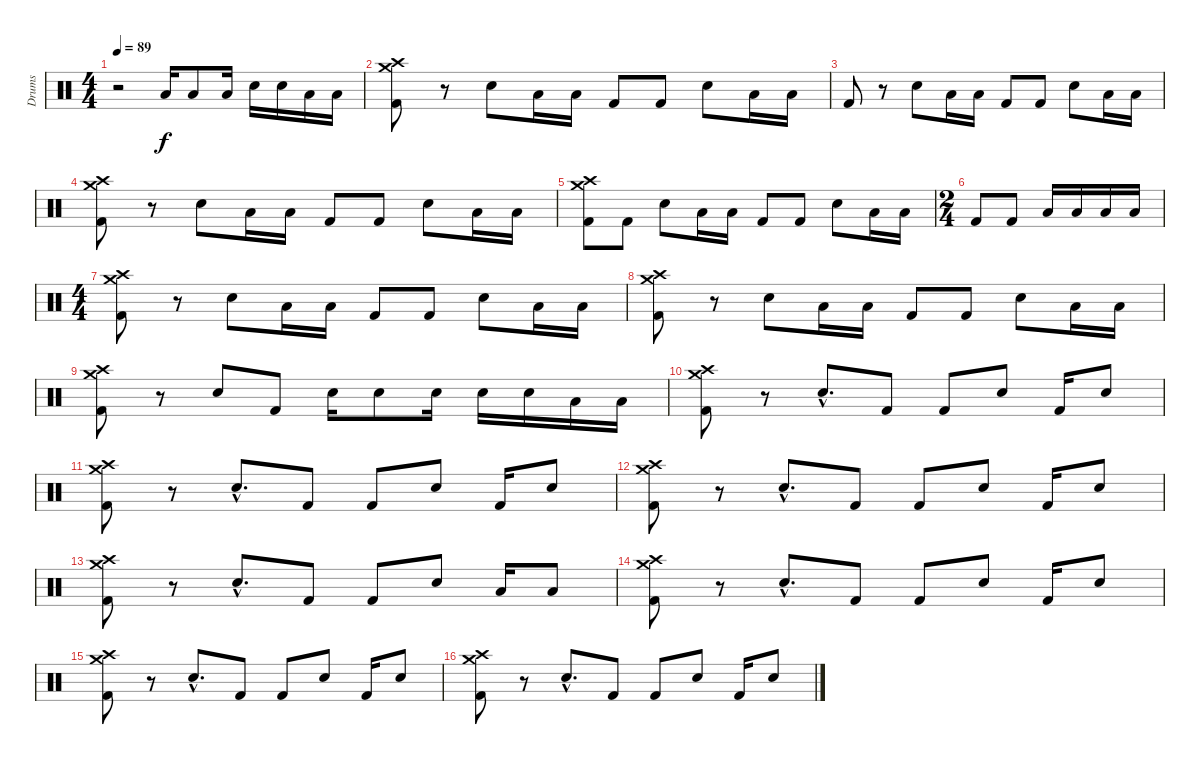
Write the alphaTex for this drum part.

\track ("Drums" "Drums") {instrument percussion}
\staff {score}
\articulation defaults
\ts (4 4)
\tempo 89
\clef neutral
\ks c
r.2{dy f} "Low Tom (hit)".16 "Low Tom (hit)".8 "Low Tom (hit)".16 "Snare (hit) 2".16 "Snare (hit) 2".16 "Low Tom (hit)".16 "Low Tom (hit)".16 |
("Crash high (hit)" "Crash medium (hit)" "Kick (hit) 2").8 r.8 "Snare (hit) 2".8 "Low Tom (hit)".16 "Low Tom (hit)".16 "Kick (hit) 2".8 "Kick (hit) 2".8 "Snare (hit) 2".8 "Low Tom (hit)".16 "Low Tom (hit)".16 |
"Kick (hit) 2".8 r.8 "Snare (hit) 2".8 "Low Tom (hit)".16 "Low Tom (hit)".16 "Kick (hit) 2".8 "Kick (hit) 2".8 "Snare (hit) 2".8 "Low Tom (hit)".16 "Low Tom (hit)".16 |
("Crash high (hit)" "Crash medium (hit)" "Kick (hit) 2").8 r.8 "Snare (hit) 2".8 "Low Tom (hit)".16 "Low Tom (hit)".16 "Kick (hit) 2".8 "Kick (hit) 2".8 "Snare (hit) 2".8 "Low Tom (hit)".16 "Low Tom (hit)".16 |
("Crash high (hit)" "Crash medium (hit)" "Kick (hit) 2").8 "Kick (hit) 2".8 "Snare (hit) 2".8 "Low Tom (hit)".16 "Low Tom (hit)".16 "Kick (hit) 2".8 "Kick (hit) 2".8 "Snare (hit) 2".8 "Low Tom (hit)".16 "Low Tom (hit)".16 |
\ts (2 4)
"Kick (hit) 2".8 "Kick (hit) 2".8 "Low Tom (hit)".16 "Low Tom (hit)".16 "Low Floor Tom (hit)".16 "Low Floor Tom (hit)".16 |
\ts (4 4)
("Crash high (hit)" "Crash medium (hit)" "Kick (hit) 2").8 r.8 "Snare (hit) 2".8 "Low Tom (hit)".16 "Low Tom (hit)".16 "Kick (hit) 2".8 "Kick (hit) 2".8 "Snare (hit) 2".8 "Low Tom (hit)".16 "Low Tom (hit)".16 |
("Crash high (hit)" "Crash medium (hit)" "Kick (hit) 2").8 r.8 "Snare (hit) 2".8 "Low Tom (hit)".16 "Low Tom (hit)".16 "Kick (hit) 2".8 "Kick (hit) 2".8 "Snare (hit) 2".8 "Low Tom (hit)".16 "Low Tom (hit)".16 |
("Crash high (hit)" "Crash medium (hit)" "Kick (hit) 2").8 r.8 "Snare (hit) 2".8 "Kick (hit) 2".8 "Snare (hit) 2".16 "Snare (hit) 2".8 "Snare (hit) 2".16 "Snare (hit) 2".16 "Snare (hit) 2".16 "Low Tom (hit)".16 "Low Tom (hit)".16 |
("Crash high (hit)" "Crash medium (hit)" "Kick (hit) 2").8 r.8 "Snare (hit) 2"{hac}.8{d} "Kick (hit) 2".8 "Kick (hit) 2".8 "Snare (hit) 2".8 "Kick (hit) 2".16 "Snare (hit) 2".8 |
("Crash high (hit)" "Crash medium (hit)" "Kick (hit) 2").8 r.8 "Snare (hit) 2"{hac}.8{d} "Kick (hit) 2".8 "Kick (hit) 2".8 "Snare (hit) 2".8 "Kick (hit) 2".16 "Snare (hit) 2".8 |
("Crash high (hit)" "Crash medium (hit)" "Kick (hit) 2").8 r.8 "Snare (hit) 2"{hac}.8{d} "Kick (hit) 2".8 "Kick (hit) 2".8 "Snare (hit) 2".8 "Kick (hit) 2".16 "Snare (hit) 2".8 |
("Crash high (hit)" "Crash medium (hit)" "Kick (hit) 2").8 r.8 "Snare (hit) 2"{hac}.8{d} "Kick (hit) 2".8 "Kick (hit) 2".8 "Snare (hit) 2".8 "Low Tom (hit)".16 "Low Tom (hit)".8 |
("Crash high (hit)" "Crash medium (hit)" "Kick (hit) 2").8 r.8 "Snare (hit) 2"{hac}.8{d} "Kick (hit) 2".8 "Kick (hit) 2".8 "Snare (hit) 2".8 "Kick (hit) 2".16 "Snare (hit) 2".8 |
("Crash high (hit)" "Crash medium (hit)" "Kick (hit) 2").8 r.8 "Snare (hit) 2"{hac}.8{d} "Kick (hit) 2".8 "Kick (hit) 2".8 "Snare (hit) 2".8 "Kick (hit) 2".16 "Snare (hit) 2".8 |
("Crash high (hit)" "Crash medium (hit)" "Kick (hit) 2").8 r.8 "Snare (hit) 2"{hac}.8{d} "Kick (hit) 2".8 "Kick (hit) 2".8 "Snare (hit) 2".8 "Kick (hit) 2".16 "Snare (hit) 2".8
